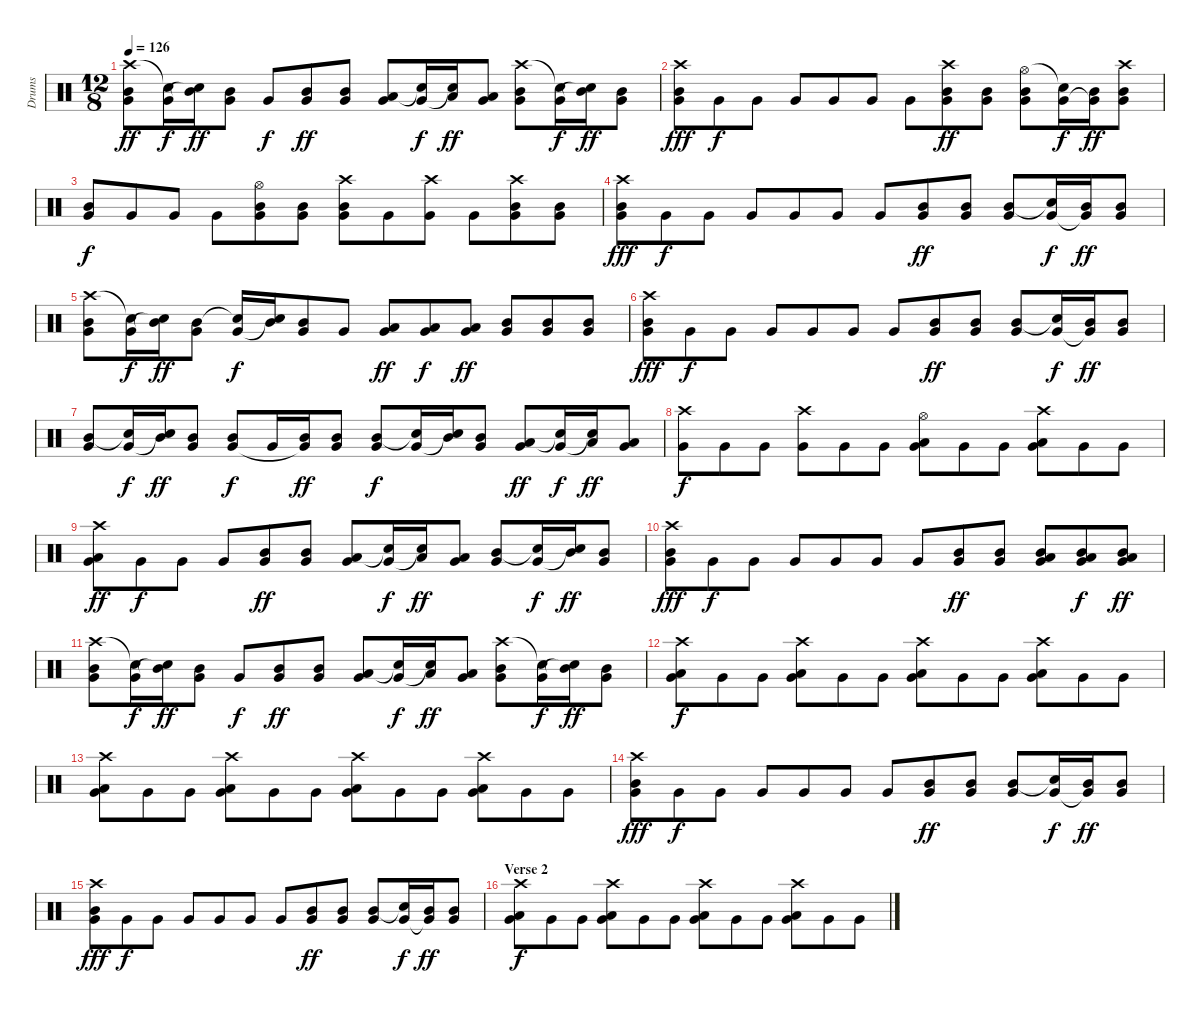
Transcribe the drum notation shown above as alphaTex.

\track ("Drums" "Drums") {instrument percussion}
\staff {score}
\articulation defaults
\ts (12 8)
\tempo 126
\clef neutral
\ks c
("Crash high (hit)" "Mid Tom (hit)" "Very Low Tom (hit)").8{dy ff} ("Snare (hit)"{t} "Very Low Tom (hit)").16{dy f} ("Mid Tom (hit)" "Snare (hit)"{t}).16{dy ff} ("Mid Tom (hit)" "Very Low Tom (hit)").8 "Very Low Tom (hit)".8{dy f} ("Mid Tom (hit)" "Very Low Tom (hit)").8{dy ff} ("Mid Tom (hit)" "Very Low Tom (hit)").8 ("Low Tom (hit)" "Very Low Tom (hit)").8 ("Snare (hit)"{t} "Very Low Tom (hit)").16{dy f} ("Low Tom (hit)" "Snare (hit)"{t}).16{dy ff} ("Low Tom (hit)" "Very Low Tom (hit)").8 ("Crash high (hit)" "Mid Tom (hit)" "Very Low Tom (hit)").8 ("Snare (hit)"{t} "Very Low Tom (hit)").16{dy f} ("Mid Tom (hit)" "Snare (hit)"{t}).16{dy ff} ("Mid Tom (hit)" "Very Low Tom (hit)").8 |
("Crash high (hit)" "Very Low Tom (hit)" "Mid Tom (hit)").8{dy fff} "Very Low Tom (hit)".8{dy f} "Very Low Tom (hit)".8 "Very Low Tom (hit)".8 "Very Low Tom (hit)".8 "Very Low Tom (hit)".8 "Very Low Tom (hit)".8 ("Crash high (hit)" "Mid Tom (hit)" "Very Low Tom (hit)").8{dy ff} ("Mid Tom (hit)" "Very Low Tom (hit)").8 ("Hi-Hat (open)" "Mid Tom (hit)" "Very Low Tom (hit)").8 ("Snare (hit)"{t} "Very Low Tom (hit)").16{dy f} ("Mid Tom (hit)" "Very Low Tom (hit)"{t}).16{dy ff} ("Crash high (hit)" "Mid Tom (hit)" "Very Low Tom (hit)").8 |
("Mid Tom (hit)" "Very Low Tom (hit)").8{dy f} "Very Low Tom (hit)".8 "Very Low Tom (hit)".8 "Very Low Tom (hit)".8 ("Hi-Hat (open)" "Mid Tom (hit)" "Very Low Tom (hit)").8 ("Mid Tom (hit)" "Very Low Tom (hit)").8 ("Crash high (hit)" "Mid Tom (hit)" "Very Low Tom (hit)").8 "Very Low Tom (hit)".8 ("Crash high (hit)" "Very Low Tom (hit)").8 "Very Low Tom (hit)".8 ("Crash high (hit)" "Mid Tom (hit)" "Very Low Tom (hit)").8 ("Mid Tom (hit)" "Very Low Tom (hit)").8 |
("Crash high (hit)" "Very Low Tom (hit)" "Mid Tom (hit)").8{dy fff} "Very Low Tom (hit)".8{dy f} "Very Low Tom (hit)".8 "Very Low Tom (hit)".8 "Very Low Tom (hit)".8 "Very Low Tom (hit)".8 "Very Low Tom (hit)".8 ("Mid Tom (hit)" "Very Low Tom (hit)").8{dy ff} ("Mid Tom (hit)" "Very Low Tom (hit)").8 ("Mid Tom (hit)" "Very Low Tom (hit)").8 ("Snare (hit)"{t} "Very Low Tom (hit)").16{dy f} ("Mid Tom (hit)" "Very Low Tom (hit)"{t}).16{dy ff} ("Mid Tom (hit)" "Very Low Tom (hit)").8 |
("Crash high (hit)" "Mid Tom (hit)" "Very Low Tom (hit)").8 ("Snare (hit)"{t} "Very Low Tom (hit)").16{dy f} ("Mid Tom (hit)" "Snare (hit)"{t}).16{dy ff} ("Mid Tom (hit)" "Very Low Tom (hit)").8 ("Snare (hit)"{t} "Very Low Tom (hit)").16{dy f} ("Mid Tom (hit)" "Snare (hit)"{t}).16 ("Mid Tom (hit)" "Very Low Tom (hit)").8 "Very Low Tom (hit)".8 ("Low Tom (hit)" "Very Low Tom (hit)").8{dy ff} ("Low Tom (hit)" "Very Low Tom (hit)").8{dy f} ("Low Tom (hit)" "Very Low Tom (hit)").8{dy ff} ("Mid Tom (hit)" "Very Low Tom (hit)").8 ("Mid Tom (hit)" "Very Low Tom (hit)").8 ("Mid Tom (hit)" "Very Low Tom (hit)").8 |
("Crash high (hit)" "Very Low Tom (hit)" "Mid Tom (hit)").8{dy fff} "Very Low Tom (hit)".8{dy f} "Very Low Tom (hit)".8 "Very Low Tom (hit)".8 "Very Low Tom (hit)".8 "Very Low Tom (hit)".8 "Very Low Tom (hit)".8 ("Mid Tom (hit)" "Very Low Tom (hit)").8{dy ff} ("Mid Tom (hit)" "Very Low Tom (hit)").8 ("Mid Tom (hit)" "Very Low Tom (hit)").8 ("Snare (hit)"{t} "Very Low Tom (hit)").16{dy f} ("Mid Tom (hit)" "Very Low Tom (hit)"{t}).16{dy ff} ("Mid Tom (hit)" "Very Low Tom (hit)").8 |
("Mid Tom (hit)" "Very Low Tom (hit)").8 ("Snare (hit)"{t} "Very Low Tom (hit)").16{dy f} ("Mid Tom (hit)" "Snare (hit)"{t}).16{dy ff} ("Mid Tom (hit)" "Very Low Tom (hit)").8 ("Mid Tom (hit)" "Very Low Tom (hit)").8{dy f} "Very Low Tom (hit)".16 ("Mid Tom (hit)" "Very Low Tom (hit)"{t}).16{dy ff} ("Mid Tom (hit)" "Very Low Tom (hit)").8 ("Mid Tom (hit)" "Very Low Tom (hit)").8{dy f} ("Snare (hit)"{t} "Very Low Tom (hit)").16 ("Mid Tom (hit)" "Snare (hit)"{t}).16 ("Mid Tom (hit)" "Very Low Tom (hit)").8 ("Low Tom (hit)" "Very Low Tom (hit)").8{dy ff} ("Snare (hit)"{t} "Very Low Tom (hit)").16{dy f} ("Low Tom (hit)" "Snare (hit)"{t}).16{dy ff} ("Low Tom (hit)" "Very Low Tom (hit)").8 |
("Crash high (hit)" "Very Low Tom (hit)").8{dy f} "Very Low Tom (hit)".8 "Very Low Tom (hit)".8 ("Crash high (hit)" "Very Low Tom (hit)").8 "Very Low Tom (hit)".8 "Very Low Tom (hit)".8 ("Hi-Hat (open)" "Low Tom (hit)" "Very Low Tom (hit)").8 "Very Low Tom (hit)".8 "Very Low Tom (hit)".8 ("Crash high (hit)" "Low Tom (hit)" "Very Low Tom (hit)").8 "Very Low Tom (hit)".8 "Very Low Tom (hit)".8 |
("Crash high (hit)" "Low Tom (hit)" "Very Low Tom (hit)").8{dy ff} "Very Low Tom (hit)".8{dy f} "Very Low Tom (hit)".8 "Very Low Tom (hit)".8 ("Mid Tom (hit)" "Very Low Tom (hit)").8{dy ff} ("Mid Tom (hit)" "Very Low Tom (hit)").8 ("Low Tom (hit)" "Very Low Tom (hit)").8 ("Snare (hit)"{t} "Very Low Tom (hit)").16{dy f} ("Low Tom (hit)" "Snare (hit)"{t}).16{dy ff} ("Low Tom (hit)" "Very Low Tom (hit)").8 ("Mid Tom (hit)" "Very Low Tom (hit)").8 ("Snare (hit)"{t} "Very Low Tom (hit)").16{dy f} ("Mid Tom (hit)" "Snare (hit)"{t}).16{dy ff} ("Mid Tom (hit)" "Very Low Tom (hit)").8 |
("Crash high (hit)" "Very Low Tom (hit)" "Mid Tom (hit)").8{dy fff} "Very Low Tom (hit)".8{dy f} "Very Low Tom (hit)".8 "Very Low Tom (hit)".8 "Very Low Tom (hit)".8 "Very Low Tom (hit)".8 "Very Low Tom (hit)".8 ("Mid Tom (hit)" "Very Low Tom (hit)").8{dy ff} ("Mid Tom (hit)" "Very Low Tom (hit)").8 ("Low Tom (hit)" "Mid Tom (hit)" "Very Low Tom (hit)").8 ("Low Tom (hit)" "Mid Tom (hit)" "Very Low Tom (hit)").8{dy f} ("Low Tom (hit)" "Mid Tom (hit)" "Very Low Tom (hit)").8{dy ff} |
("Crash high (hit)" "Mid Tom (hit)" "Very Low Tom (hit)").8 ("Snare (hit)"{t} "Very Low Tom (hit)").16{dy f} ("Mid Tom (hit)" "Snare (hit)"{t}).16{dy ff} ("Mid Tom (hit)" "Very Low Tom (hit)").8 "Very Low Tom (hit)".8{dy f} ("Mid Tom (hit)" "Very Low Tom (hit)").8{dy ff} ("Mid Tom (hit)" "Very Low Tom (hit)").8 ("Low Tom (hit)" "Very Low Tom (hit)").8 ("Snare (hit)"{t} "Very Low Tom (hit)").16{dy f} ("Low Tom (hit)" "Snare (hit)"{t}).16{dy ff} ("Low Tom (hit)" "Very Low Tom (hit)").8 ("Crash high (hit)" "Mid Tom (hit)" "Very Low Tom (hit)").8 ("Snare (hit)"{t} "Very Low Tom (hit)").16{dy f} ("Mid Tom (hit)" "Snare (hit)"{t}).16{dy ff} ("Mid Tom (hit)" "Very Low Tom (hit)").8 |
("Crash high (hit)" "Low Tom (hit)" "Very Low Tom (hit)").8{dy f} "Very Low Tom (hit)".8 "Very Low Tom (hit)".8 ("Crash high (hit)" "Low Tom (hit)" "Very Low Tom (hit)").8 "Very Low Tom (hit)".8 "Very Low Tom (hit)".8 ("Crash high (hit)" "Low Tom (hit)" "Very Low Tom (hit)").8 "Very Low Tom (hit)".8 "Very Low Tom (hit)".8 ("Crash high (hit)" "Low Tom (hit)" "Very Low Tom (hit)").8 "Very Low Tom (hit)".8 "Very Low Tom (hit)".8 |
("Crash high (hit)" "Low Tom (hit)" "Very Low Tom (hit)").8 "Very Low Tom (hit)".8 "Very Low Tom (hit)".8 ("Crash high (hit)" "Low Tom (hit)" "Very Low Tom (hit)").8 "Very Low Tom (hit)".8 "Very Low Tom (hit)".8 ("Crash high (hit)" "Low Tom (hit)" "Very Low Tom (hit)").8 "Very Low Tom (hit)".8 "Very Low Tom (hit)".8 ("Crash high (hit)" "Low Tom (hit)" "Very Low Tom (hit)").8 "Very Low Tom (hit)".8 "Very Low Tom (hit)".8 |
("Crash high (hit)" "Very Low Tom (hit)" "Mid Tom (hit)").8{dy fff} "Very Low Tom (hit)".8{dy f} "Very Low Tom (hit)".8 "Very Low Tom (hit)".8 "Very Low Tom (hit)".8 "Very Low Tom (hit)".8 "Very Low Tom (hit)".8 ("Mid Tom (hit)" "Very Low Tom (hit)").8{dy ff} ("Mid Tom (hit)" "Very Low Tom (hit)").8 ("Mid Tom (hit)" "Very Low Tom (hit)").8 ("Snare (hit)"{t} "Very Low Tom (hit)").16{dy f} ("Mid Tom (hit)" "Very Low Tom (hit)"{t}).16{dy ff} ("Mid Tom (hit)" "Very Low Tom (hit)").8 |
("Crash high (hit)" "Very Low Tom (hit)" "Mid Tom (hit)").8{dy fff} "Very Low Tom (hit)".8{dy f} "Very Low Tom (hit)".8 "Very Low Tom (hit)".8 "Very Low Tom (hit)".8 "Very Low Tom (hit)".8 "Very Low Tom (hit)".8 ("Mid Tom (hit)" "Very Low Tom (hit)").8{dy ff} ("Mid Tom (hit)" "Very Low Tom (hit)").8 ("Mid Tom (hit)" "Very Low Tom (hit)").8 ("Snare (hit)"{t} "Very Low Tom (hit)").16{dy f} ("Mid Tom (hit)" "Very Low Tom (hit)"{t}).16{dy ff} ("Mid Tom (hit)" "Very Low Tom (hit)").8 |
\section ("" "Verse 2")
("Crash high (hit)" "Low Tom (hit)" "Very Low Tom (hit)").8{dy f} "Very Low Tom (hit)".8 "Very Low Tom (hit)".8 ("Crash high (hit)" "Low Tom (hit)" "Very Low Tom (hit)").8 "Very Low Tom (hit)".8 "Very Low Tom (hit)".8 ("Crash high (hit)" "Low Tom (hit)" "Very Low Tom (hit)").8 "Very Low Tom (hit)".8 "Very Low Tom (hit)".8 ("Crash high (hit)" "Low Tom (hit)" "Very Low Tom (hit)").8 "Very Low Tom (hit)".8 "Very Low Tom (hit)".8
